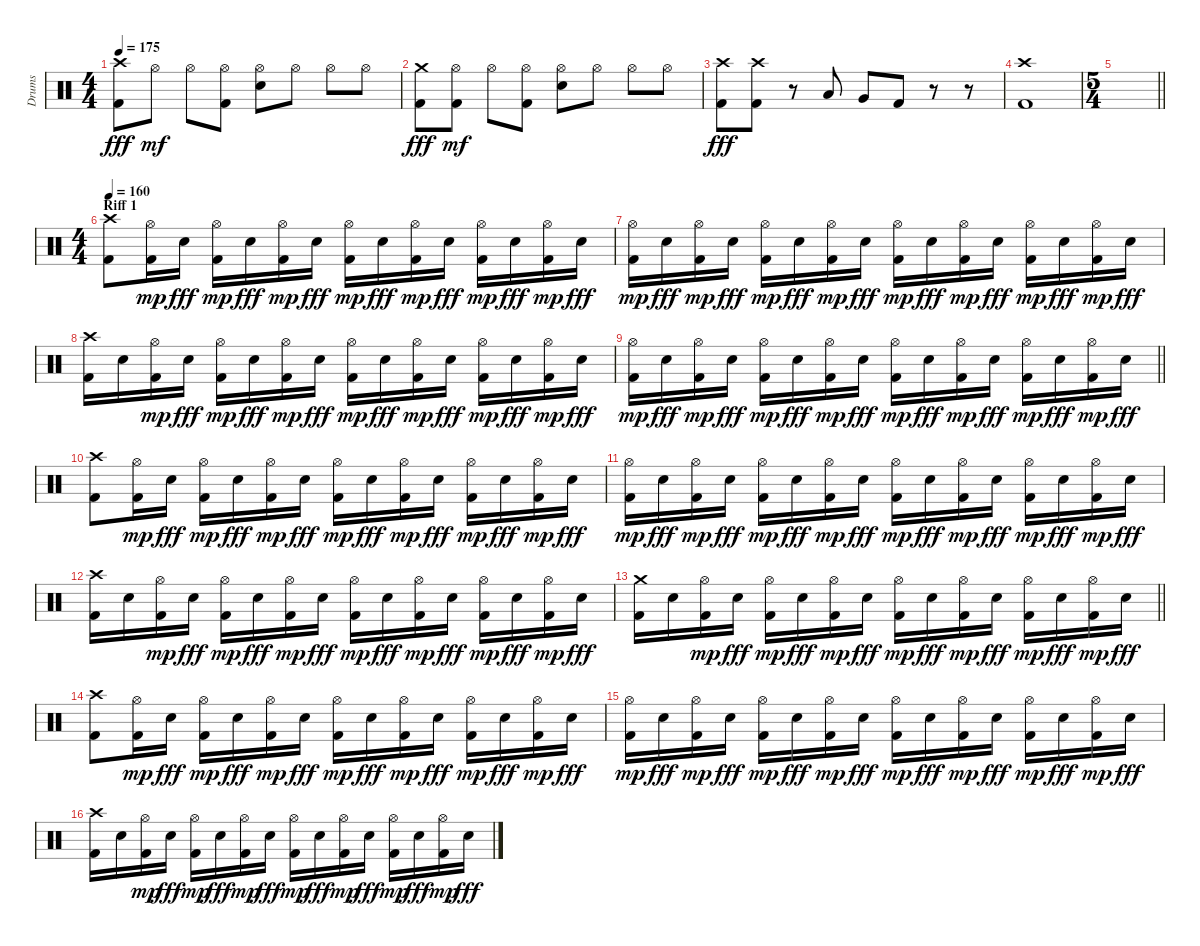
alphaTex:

\track ("Drums" "Drums") {instrument percussion}
\staff {score}
\articulation defaults
\ts (4 4)
\tempo 175
\clef neutral
\ks c
("Kick (hit) 2" "Crash high (hit)").8{dy fff} "Hi-Hat (open)".8{dy mf} "Hi-Hat (open)".8 ("Kick (hit) 2" "Hi-Hat (open)").8 ("Electric Snare (hit)" "Hi-Hat (open)").8 "Hi-Hat (open)".8 "Hi-Hat (open)".8 "Hi-Hat (open)".8 |
("Kick (hit) 2" "Crash medium (hit)").8{dy fff} ("Kick (hit) 2" "Hi-Hat (open)").8{dy mf} "Hi-Hat (open)".8 ("Kick (hit) 2" "Hi-Hat (open)").8 ("Electric Snare (hit)" "Hi-Hat (open)").8 "Hi-Hat (open)".8 "Hi-Hat (open)".8 "Hi-Hat (open)".8 |
("Kick (hit) 2" "Crash high (hit)").8{dy fff} ("Kick (hit) 2" "Crash high (hit)").8 r.8 "Low Tom (hit)".8 "Very Low Tom (hit)".8 "Kick (hit) 2".8 r.8 r.8 |
("Kick (hit) 2" "Crash high (hit)").1 |
\ts (5 4)
\barLineRight lightlight
|
\ts (4 4)
\section ("" "Riff 1")
\tempo 160
("Kick (hit) 2" "Crash high (hit)").8 ("Kick (hit) 2" "Hi-Hat (open)").16{dy mp} "Electric Snare (hit)".16{dy fff} ("Kick (hit) 2" "Hi-Hat (open)").16{dy mp} "Electric Snare (hit)".16{dy fff} ("Kick (hit) 2" "Hi-Hat (open)").16{dy mp} "Electric Snare (hit)".16{dy fff} ("Kick (hit) 2" "Hi-Hat (open)").16{dy mp} "Electric Snare (hit)".16{dy fff} ("Kick (hit) 2" "Hi-Hat (open)").16{dy mp} "Electric Snare (hit)".16{dy fff} ("Kick (hit) 2" "Hi-Hat (open)").16{dy mp} "Electric Snare (hit)".16{dy fff} ("Kick (hit) 2" "Hi-Hat (open)").16{dy mp} "Electric Snare (hit)".16{dy fff} |
("Kick (hit) 2" "Hi-Hat (open)").16{dy mp} "Electric Snare (hit)".16{dy fff} ("Kick (hit) 2" "Hi-Hat (open)").16{dy mp} "Electric Snare (hit)".16{dy fff} ("Kick (hit) 2" "Hi-Hat (open)").16{dy mp} "Electric Snare (hit)".16{dy fff} ("Kick (hit) 2" "Hi-Hat (open)").16{dy mp} "Electric Snare (hit)".16{dy fff} ("Kick (hit) 2" "Hi-Hat (open)").16{dy mp} "Electric Snare (hit)".16{dy fff} ("Kick (hit) 2" "Hi-Hat (open)").16{dy mp} "Electric Snare (hit)".16{dy fff} ("Kick (hit) 2" "Hi-Hat (open)").16{dy mp} "Electric Snare (hit)".16{dy fff} ("Kick (hit) 2" "Hi-Hat (open)").16{dy mp} "Electric Snare (hit)".16{dy fff} |
("Kick (hit) 2" "Crash high (hit)").16 "Electric Snare (hit)".16 ("Kick (hit) 2" "Hi-Hat (open)").16{dy mp} "Electric Snare (hit)".16{dy fff} ("Kick (hit) 2" "Hi-Hat (open)").16{dy mp} "Electric Snare (hit)".16{dy fff} ("Kick (hit) 2" "Hi-Hat (open)").16{dy mp} "Electric Snare (hit)".16{dy fff} ("Kick (hit) 2" "Hi-Hat (open)").16{dy mp} "Electric Snare (hit)".16{dy fff} ("Kick (hit) 2" "Hi-Hat (open)").16{dy mp} "Electric Snare (hit)".16{dy fff} ("Kick (hit) 2" "Hi-Hat (open)").16{dy mp} "Electric Snare (hit)".16{dy fff} ("Kick (hit) 2" "Hi-Hat (open)").16{dy mp} "Electric Snare (hit)".16{dy fff} |
\barLineRight lightlight
("Kick (hit) 2" "Hi-Hat (open)").16{dy mp} "Electric Snare (hit)".16{dy fff} ("Kick (hit) 2" "Hi-Hat (open)").16{dy mp} "Electric Snare (hit)".16{dy fff} ("Kick (hit) 2" "Hi-Hat (open)").16{dy mp} "Electric Snare (hit)".16{dy fff} ("Kick (hit) 2" "Hi-Hat (open)").16{dy mp} "Electric Snare (hit)".16{dy fff} ("Kick (hit) 2" "Hi-Hat (open)").16{dy mp} "Electric Snare (hit)".16{dy fff} ("Kick (hit) 2" "Hi-Hat (open)").16{dy mp} "Electric Snare (hit)".16{dy fff} ("Kick (hit) 2" "Hi-Hat (open)").16{dy mp} "Electric Snare (hit)".16{dy fff} ("Kick (hit) 2" "Hi-Hat (open)").16{dy mp} "Electric Snare (hit)".16{dy fff} |
\section ("" "")
("Kick (hit) 2" "Crash high (hit)").8 ("Kick (hit) 2" "Hi-Hat (open)").16{dy mp} "Electric Snare (hit)".16{dy fff} ("Kick (hit) 2" "Hi-Hat (open)").16{dy mp} "Electric Snare (hit)".16{dy fff} ("Kick (hit) 2" "Hi-Hat (open)").16{dy mp} "Electric Snare (hit)".16{dy fff} ("Kick (hit) 2" "Hi-Hat (open)").16{dy mp} "Electric Snare (hit)".16{dy fff} ("Kick (hit) 2" "Hi-Hat (open)").16{dy mp} "Electric Snare (hit)".16{dy fff} ("Kick (hit) 2" "Hi-Hat (open)").16{dy mp} "Electric Snare (hit)".16{dy fff} ("Kick (hit) 2" "Hi-Hat (open)").16{dy mp} "Electric Snare (hit)".16{dy fff} |
("Kick (hit) 2" "Hi-Hat (open)").16{dy mp} "Electric Snare (hit)".16{dy fff} ("Kick (hit) 2" "Hi-Hat (open)").16{dy mp} "Electric Snare (hit)".16{dy fff} ("Kick (hit) 2" "Hi-Hat (open)").16{dy mp} "Electric Snare (hit)".16{dy fff} ("Kick (hit) 2" "Hi-Hat (open)").16{dy mp} "Electric Snare (hit)".16{dy fff} ("Kick (hit) 2" "Hi-Hat (open)").16{dy mp} "Electric Snare (hit)".16{dy fff} ("Kick (hit) 2" "Hi-Hat (open)").16{dy mp} "Electric Snare (hit)".16{dy fff} ("Kick (hit) 2" "Hi-Hat (open)").16{dy mp} "Electric Snare (hit)".16{dy fff} ("Kick (hit) 2" "Hi-Hat (open)").16{dy mp} "Electric Snare (hit)".16{dy fff} |
("Kick (hit) 2" "Crash high (hit)").16 "Electric Snare (hit)".16 ("Kick (hit) 2" "Hi-Hat (open)").16{dy mp} "Electric Snare (hit)".16{dy fff} ("Kick (hit) 2" "Hi-Hat (open)").16{dy mp} "Electric Snare (hit)".16{dy fff} ("Kick (hit) 2" "Hi-Hat (open)").16{dy mp} "Electric Snare (hit)".16{dy fff} ("Kick (hit) 2" "Hi-Hat (open)").16{dy mp} "Electric Snare (hit)".16{dy fff} ("Kick (hit) 2" "Hi-Hat (open)").16{dy mp} "Electric Snare (hit)".16{dy fff} ("Kick (hit) 2" "Hi-Hat (open)").16{dy mp} "Electric Snare (hit)".16{dy fff} ("Kick (hit) 2" "Hi-Hat (open)").16{dy mp} "Electric Snare (hit)".16{dy fff} |
\barLineRight lightlight
("Kick (hit) 2" "Crash medium (hit)").16 "Electric Snare (hit)".16 ("Kick (hit) 2" "Hi-Hat (open)").16{dy mp} "Electric Snare (hit)".16{dy fff} ("Kick (hit) 2" "Hi-Hat (open)").16{dy mp} "Electric Snare (hit)".16{dy fff} ("Kick (hit) 2" "Hi-Hat (open)").16{dy mp} "Electric Snare (hit)".16{dy fff} ("Kick (hit) 2" "Hi-Hat (open)").16{dy mp} "Electric Snare (hit)".16{dy fff} ("Kick (hit) 2" "Hi-Hat (open)").16{dy mp} "Electric Snare (hit)".16{dy fff} ("Kick (hit) 2" "Hi-Hat (open)").16{dy mp} "Electric Snare (hit)".16{dy fff} ("Kick (hit) 2" "Hi-Hat (open)").16{dy mp} "Electric Snare (hit)".16{dy fff} |
\section ("" "")
("Kick (hit) 2" "Crash high (hit)").8 ("Kick (hit) 2" "Hi-Hat (open)").16{dy mp} "Electric Snare (hit)".16{dy fff} ("Kick (hit) 2" "Hi-Hat (open)").16{dy mp} "Electric Snare (hit)".16{dy fff} ("Kick (hit) 2" "Hi-Hat (open)").16{dy mp} "Electric Snare (hit)".16{dy fff} ("Kick (hit) 2" "Hi-Hat (open)").16{dy mp} "Electric Snare (hit)".16{dy fff} ("Kick (hit) 2" "Hi-Hat (open)").16{dy mp} "Electric Snare (hit)".16{dy fff} ("Kick (hit) 2" "Hi-Hat (open)").16{dy mp} "Electric Snare (hit)".16{dy fff} ("Kick (hit) 2" "Hi-Hat (open)").16{dy mp} "Electric Snare (hit)".16{dy fff} |
("Kick (hit) 2" "Hi-Hat (open)").16{dy mp} "Electric Snare (hit)".16{dy fff} ("Kick (hit) 2" "Hi-Hat (open)").16{dy mp} "Electric Snare (hit)".16{dy fff} ("Kick (hit) 2" "Hi-Hat (open)").16{dy mp} "Electric Snare (hit)".16{dy fff} ("Kick (hit) 2" "Hi-Hat (open)").16{dy mp} "Electric Snare (hit)".16{dy fff} ("Kick (hit) 2" "Hi-Hat (open)").16{dy mp} "Electric Snare (hit)".16{dy fff} ("Kick (hit) 2" "Hi-Hat (open)").16{dy mp} "Electric Snare (hit)".16{dy fff} ("Kick (hit) 2" "Hi-Hat (open)").16{dy mp} "Electric Snare (hit)".16{dy fff} ("Kick (hit) 2" "Hi-Hat (open)").16{dy mp} "Electric Snare (hit)".16{dy fff} |
("Kick (hit) 2" "Crash high (hit)").16 "Electric Snare (hit)".16 ("Kick (hit) 2" "Hi-Hat (open)").16{dy mp} "Electric Snare (hit)".16{dy fff} ("Kick (hit) 2" "Hi-Hat (open)").16{dy mp} "Electric Snare (hit)".16{dy fff} ("Kick (hit) 2" "Hi-Hat (open)").16{dy mp} "Electric Snare (hit)".16{dy fff} ("Kick (hit) 2" "Hi-Hat (open)").16{dy mp} "Electric Snare (hit)".16{dy fff} ("Kick (hit) 2" "Hi-Hat (open)").16{dy mp} "Electric Snare (hit)".16{dy fff} ("Kick (hit) 2" "Hi-Hat (open)").16{dy mp} "Electric Snare (hit)".16{dy fff} ("Kick (hit) 2" "Hi-Hat (open)").16{dy mp} "Electric Snare (hit)".16{dy fff}
